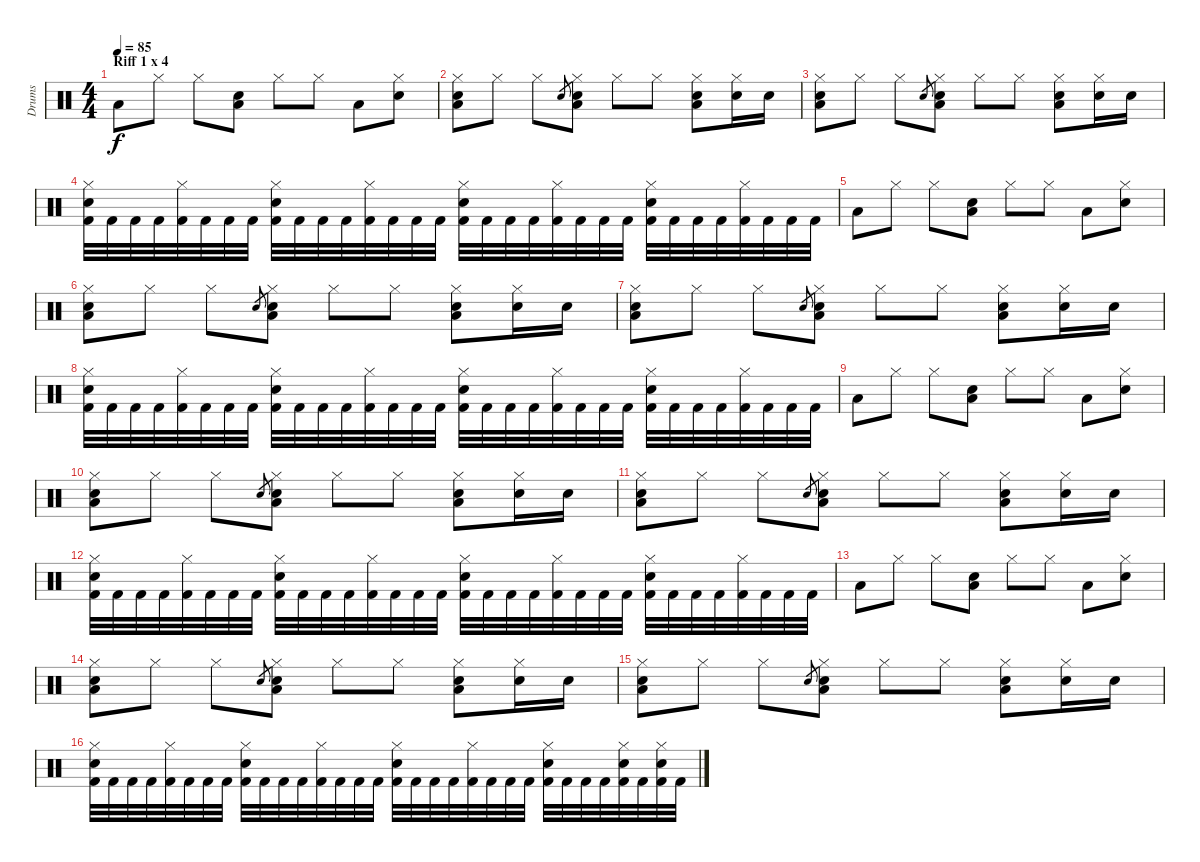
\track ("Drums" "Drums") {instrument percussion}
\staff {score}
\articulation defaults
\ts (4 4)
\section ("" "Riff 1 x 4")
\tempo 85
\clef neutral
\ks c "Low Tom (hit)".8{dy f} "Hi-Hat (closed)".8 "Hi-Hat (closed)".8
("Low Tom (hit)" "Snare (hit) 2").8 "Hi-Hat (closed)".8 "Hi-Hat (closed)".8 "Low Tom (hit)".8 ("Hi-Hat (closed)" "Snare (hit) 2").8 |
("Low Tom (hit)" "Snare (hit) 2" "Hi-Hat (closed)").8 "Hi-Hat (closed)".8 "Hi-Hat (closed)".8 "Snare (hit) 2".8{gr} ("Low Tom (hit)" "Snare (hit) 2" "Hi-Hat (closed)").8 "Hi-Hat (closed)".8 "Hi-Hat (closed)".8 ("Low Tom (hit)" "Snare (hit) 2" "Hi-Hat (closed)").8 ("Snare (hit) 2" "Hi-Hat (closed)").16 "Snare (hit) 2".16 |
("Low Tom (hit)" "Snare (hit) 2" "Hi-Hat (closed)").8 "Hi-Hat (closed)".8 "Hi-Hat (closed)".8 "Snare (hit) 2".8{gr} ("Low Tom (hit)" "Snare (hit) 2" "Hi-Hat (closed)").8 "Hi-Hat (closed)".8 "Hi-Hat (closed)".8 ("Low Tom (hit)" "Snare (hit) 2" "Hi-Hat (closed)").8 ("Snare (hit) 2" "Hi-Hat (closed)").16 "Snare (hit) 2".16 |
("Kick (hit) 2" "Snare (hit) 2" "Hi-Hat (closed)").32 "Kick (hit) 2".32 "Kick (hit) 2".32 "Kick (hit) 2".32 ("Kick (hit) 2" "Hi-Hat (closed)").32 "Kick (hit) 2".32 "Kick (hit) 2".32 "Kick (hit) 2".32 ("Kick (hit) 2" "Snare (hit) 2" "Hi-Hat (closed)").32 "Kick (hit) 2".32 "Kick (hit) 2".32 "Kick (hit) 2".32 ("Kick (hit) 2" "Hi-Hat (closed)").32 "Kick (hit) 2".32 "Kick (hit) 2".32 "Kick (hit) 2".32 ("Kick (hit) 2" "Snare (hit) 2" "Hi-Hat (closed)").32 "Kick (hit) 2".32 "Kick (hit) 2".32 "Kick (hit) 2".32 ("Kick (hit) 2" "Hi-Hat (closed)").32 "Kick (hit) 2".32 "Kick (hit) 2".32 "Kick (hit) 2".32 ("Kick (hit) 2" "Snare (hit) 2" "Hi-Hat (closed)").32 "Kick (hit) 2".32 "Kick (hit) 2".32 "Kick (hit) 2".32 ("Kick (hit) 2" "Hi-Hat (closed)").32 "Kick (hit) 2".32 "Kick (hit) 2".32 "Kick (hit) 2".32 |
"Low Tom (hit)".8 "Hi-Hat (closed)".8 "Hi-Hat (closed)".8 ("Low Tom (hit)" "Snare (hit) 2").8 "Hi-Hat (closed)".8 "Hi-Hat (closed)".8 "Low Tom (hit)".8 ("Hi-Hat (closed)" "Snare (hit) 2").8 |
("Low Tom (hit)" "Snare (hit) 2" "Hi-Hat (closed)").8 "Hi-Hat (closed)".8 "Hi-Hat (closed)".8 "Snare (hit) 2".8{gr} ("Low Tom (hit)" "Snare (hit) 2" "Hi-Hat (closed)").8 "Hi-Hat (closed)".8 "Hi-Hat (closed)".8 ("Low Tom (hit)" "Snare (hit) 2" "Hi-Hat (closed)").8 ("Snare (hit) 2" "Hi-Hat (closed)").16 "Snare (hit) 2".16 |
("Low Tom (hit)" "Snare (hit) 2" "Hi-Hat (closed)").8 "Hi-Hat (closed)".8 "Hi-Hat (closed)".8 "Snare (hit) 2".8{gr} ("Low Tom (hit)" "Snare (hit) 2" "Hi-Hat (closed)").8 "Hi-Hat (closed)".8 "Hi-Hat (closed)".8 ("Low Tom (hit)" "Snare (hit) 2" "Hi-Hat (closed)").8 ("Snare (hit) 2" "Hi-Hat (closed)").16 "Snare (hit) 2".16 |
("Kick (hit) 2" "Snare (hit) 2" "Hi-Hat (closed)").32 "Kick (hit) 2".32 "Kick (hit) 2".32 "Kick (hit) 2".32 ("Kick (hit) 2" "Hi-Hat (closed)").32 "Kick (hit) 2".32 "Kick (hit) 2".32 "Kick (hit) 2".32 ("Kick (hit) 2" "Snare (hit) 2" "Hi-Hat (closed)").32 "Kick (hit) 2".32 "Kick (hit) 2".32 "Kick (hit) 2".32 ("Kick (hit) 2" "Hi-Hat (closed)").32 "Kick (hit) 2".32 "Kick (hit) 2".32 "Kick (hit) 2".32 ("Kick (hit) 2" "Snare (hit) 2" "Hi-Hat (closed)").32 "Kick (hit) 2".32 "Kick (hit) 2".32 "Kick (hit) 2".32 ("Kick (hit) 2" "Hi-Hat (closed)").32 "Kick (hit) 2".32 "Kick (hit) 2".32 "Kick (hit) 2".32 ("Kick (hit) 2" "Snare (hit) 2" "Hi-Hat (closed)").32 "Kick (hit) 2".32 "Kick (hit) 2".32 "Kick (hit) 2".32 ("Kick (hit) 2" "Hi-Hat (closed)").32 "Kick (hit) 2".32 "Kick (hit) 2".32 "Kick (hit) 2".32 |
"Low Tom (hit)".8 "Hi-Hat (closed)".8 "Hi-Hat (closed)".8 ("Low Tom (hit)" "Snare (hit) 2").8 "Hi-Hat (closed)".8 "Hi-Hat (closed)".8 "Low Tom (hit)".8 ("Hi-Hat (closed)" "Snare (hit) 2").8 |
("Low Tom (hit)" "Snare (hit) 2" "Hi-Hat (closed)").8 "Hi-Hat (closed)".8 "Hi-Hat (closed)".8 "Snare (hit) 2".8{gr} ("Low Tom (hit)" "Snare (hit) 2" "Hi-Hat (closed)").8 "Hi-Hat (closed)".8 "Hi-Hat (closed)".8 ("Low Tom (hit)" "Snare (hit) 2" "Hi-Hat (closed)").8 ("Snare (hit) 2" "Hi-Hat (closed)").16 "Snare (hit) 2".16 |
("Low Tom (hit)" "Snare (hit) 2" "Hi-Hat (closed)").8 "Hi-Hat (closed)".8 "Hi-Hat (closed)".8 "Snare (hit) 2".8{gr} ("Low Tom (hit)" "Snare (hit) 2" "Hi-Hat (closed)").8 "Hi-Hat (closed)".8 "Hi-Hat (closed)".8 ("Low Tom (hit)" "Snare (hit) 2" "Hi-Hat (closed)").8 ("Snare (hit) 2" "Hi-Hat (closed)").16 "Snare (hit) 2".16 |
("Kick (hit) 2" "Snare (hit) 2" "Hi-Hat (closed)").32 "Kick (hit) 2".32 "Kick (hit) 2".32 "Kick (hit) 2".32 ("Kick (hit) 2" "Hi-Hat (closed)").32 "Kick (hit) 2".32 "Kick (hit) 2".32 "Kick (hit) 2".32 ("Kick (hit) 2" "Snare (hit) 2" "Hi-Hat (closed)").32 "Kick (hit) 2".32 "Kick (hit) 2".32 "Kick (hit) 2".32 ("Kick (hit) 2" "Hi-Hat (closed)").32 "Kick (hit) 2".32 "Kick (hit) 2".32 "Kick (hit) 2".32 ("Kick (hit) 2" "Snare (hit) 2" "Hi-Hat (closed)").32 "Kick (hit) 2".32 "Kick (hit) 2".32 "Kick (hit) 2".32 ("Kick (hit) 2" "Hi-Hat (closed)").32 "Kick (hit) 2".32 "Kick (hit) 2".32 "Kick (hit) 2".32 ("Kick (hit) 2" "Snare (hit) 2" "Hi-Hat (closed)").32 "Kick (hit) 2".32 "Kick (hit) 2".32 "Kick (hit) 2".32 ("Kick (hit) 2" "Hi-Hat (closed)").32 "Kick (hit) 2".32 "Kick (hit) 2".32 "Kick (hit) 2".32 |
"Low Tom (hit)".8 "Hi-Hat (closed)".8 "Hi-Hat (closed)".8 ("Low Tom (hit)" "Snare (hit) 2").8 "Hi-Hat (closed)".8 "Hi-Hat (closed)".8 "Low Tom (hit)".8 ("Hi-Hat (closed)" "Snare (hit) 2").8 |
("Low Tom (hit)" "Snare (hit) 2" "Hi-Hat (closed)").8 "Hi-Hat (closed)".8 "Hi-Hat (closed)".8 "Snare (hit) 2".8{gr} ("Low Tom (hit)" "Snare (hit) 2" "Hi-Hat (closed)").8 "Hi-Hat (closed)".8 "Hi-Hat (closed)".8 ("Low Tom (hit)" "Snare (hit) 2" "Hi-Hat (closed)").8 ("Snare (hit) 2" "Hi-Hat (closed)").16 "Snare (hit) 2".16 |
("Low Tom (hit)" "Snare (hit) 2" "Hi-Hat (closed)").8 "Hi-Hat (closed)".8 "Hi-Hat (closed)".8 "Snare (hit) 2".8{gr} ("Low Tom (hit)" "Snare (hit) 2" "Hi-Hat (closed)").8 "Hi-Hat (closed)".8 "Hi-Hat (closed)".8 ("Low Tom (hit)" "Snare (hit) 2" "Hi-Hat (closed)").8 ("Snare (hit) 2" "Hi-Hat (closed)").16 "Snare (hit) 2".16 |
("Kick (hit) 2" "Snare (hit) 2" "Hi-Hat (closed)").32 "Kick (hit) 2".32 "Kick (hit) 2".32 "Kick (hit) 2".32 ("Kick (hit) 2" "Hi-Hat (closed)").32 "Kick (hit) 2".32 "Kick (hit) 2".32 "Kick (hit) 2".32 ("Kick (hit) 2" "Snare (hit) 2" "Hi-Hat (closed)").32 "Kick (hit) 2".32 "Kick (hit) 2".32 "Kick (hit) 2".32 ("Kick (hit) 2" "Hi-Hat (closed)").32 "Kick (hit) 2".32 "Kick (hit) 2".32 "Kick (hit) 2".32 ("Kick (hit) 2" "Snare (hit) 2" "Hi-Hat (closed)").32 "Kick (hit) 2".32 "Kick (hit) 2".32 "Kick (hit) 2".32 ("Kick (hit) 2" "Hi-Hat (closed)").32 "Kick (hit) 2".32 "Kick (hit) 2".32 "Kick (hit) 2".32 ("Kick (hit) 2" "Snare (hit) 2" "Hi-Hat (closed)").32 "Kick (hit) 2".32 "Kick (hit) 2".32 "Kick (hit) 2".32 ("Kick (hit) 2" "Snare (hit) 2" "Hi-Hat (closed)").32 "Kick (hit) 2".32 ("Kick (hit) 2" "Snare (hit) 2" "Hi-Hat (closed)").32 "Kick (hit) 2".32
